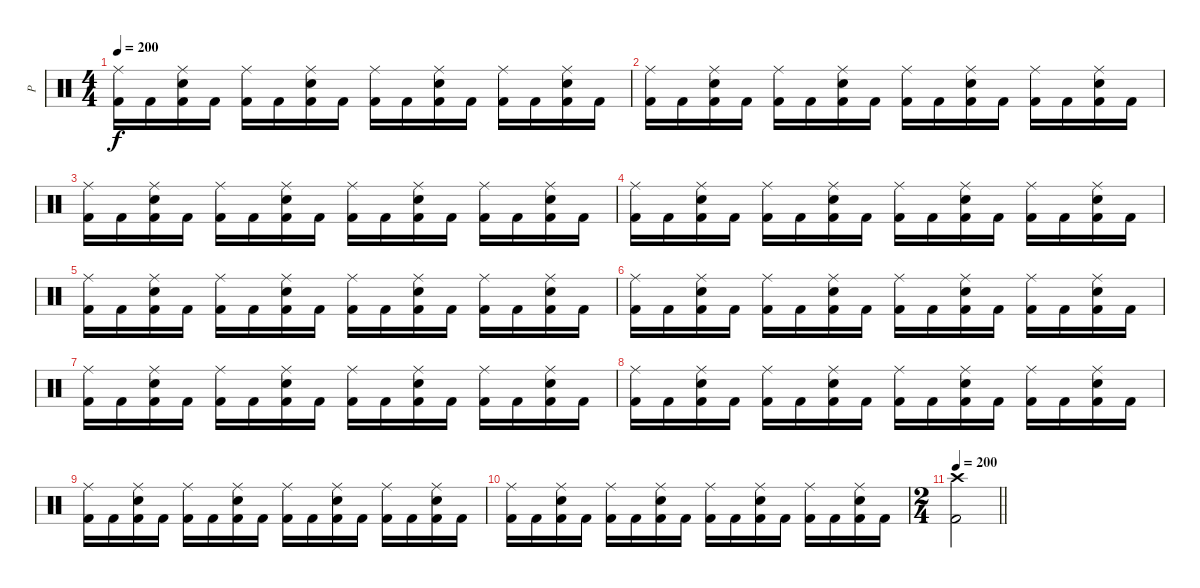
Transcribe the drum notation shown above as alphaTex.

\track ("P" "P") {instrument percussion}
\staff {score}
\articulation defaults
\ts (4 4)
\tempo 200
\clef neutral
\ks c
("Ride (middle)" "Kick (hit) 2").16{dy f} "Kick (hit) 2".16 ("Ride (middle)" "Electric Snare (hit)" "Kick (hit) 2").16 "Kick (hit) 2".16 ("Ride (middle)" "Kick (hit) 2").16 "Kick (hit) 2".16 ("Ride (middle)" "Electric Snare (hit)" "Kick (hit) 2").16 "Kick (hit) 2".16 ("Ride (middle)" "Kick (hit) 2").16 "Kick (hit) 2".16 ("Ride (middle)" "Electric Snare (hit)" "Kick (hit) 2").16 "Kick (hit) 2".16 ("Ride (middle)" "Kick (hit) 2").16 "Kick (hit) 2".16 ("Ride (middle)" "Electric Snare (hit)" "Kick (hit) 2").16 "Kick (hit) 2".16 |
("Ride (middle)" "Kick (hit) 2").16 "Kick (hit) 2".16 ("Ride (middle)" "Electric Snare (hit)" "Kick (hit) 2").16 "Kick (hit) 2".16 ("Ride (middle)" "Kick (hit) 2").16 "Kick (hit) 2".16 ("Ride (middle)" "Electric Snare (hit)" "Kick (hit) 2").16 "Kick (hit) 2".16 ("Ride (middle)" "Kick (hit) 2").16 "Kick (hit) 2".16 ("Ride (middle)" "Electric Snare (hit)" "Kick (hit) 2").16 "Kick (hit) 2".16 ("Ride (middle)" "Kick (hit) 2").16 "Kick (hit) 2".16 ("Ride (middle)" "Electric Snare (hit)" "Kick (hit) 2").16 "Kick (hit) 2".16 |
("Ride (middle)" "Kick (hit) 2").16 "Kick (hit) 2".16 ("Ride (middle)" "Electric Snare (hit)" "Kick (hit) 2").16 "Kick (hit) 2".16 ("Ride (middle)" "Kick (hit) 2").16 "Kick (hit) 2".16 ("Ride (middle)" "Electric Snare (hit)" "Kick (hit) 2").16 "Kick (hit) 2".16 ("Ride (middle)" "Kick (hit) 2").16 "Kick (hit) 2".16 ("Ride (middle)" "Electric Snare (hit)" "Kick (hit) 2").16 "Kick (hit) 2".16 ("Ride (middle)" "Kick (hit) 2").16 "Kick (hit) 2".16 ("Ride (middle)" "Electric Snare (hit)" "Kick (hit) 2").16 "Kick (hit) 2".16 |
("Ride (middle)" "Kick (hit) 2").16 "Kick (hit) 2".16 ("Ride (middle)" "Electric Snare (hit)" "Kick (hit) 2").16 "Kick (hit) 2".16 ("Ride (middle)" "Kick (hit) 2").16 "Kick (hit) 2".16 ("Ride (middle)" "Electric Snare (hit)" "Kick (hit) 2").16 "Kick (hit) 2".16 ("Ride (middle)" "Kick (hit) 2").16 "Kick (hit) 2".16 ("Ride (middle)" "Electric Snare (hit)" "Kick (hit) 2").16 "Kick (hit) 2".16 ("Ride (middle)" "Kick (hit) 2").16 "Kick (hit) 2".16 ("Ride (middle)" "Electric Snare (hit)" "Kick (hit) 2").16 "Kick (hit) 2".16 |
("Ride (middle)" "Kick (hit) 2").16 "Kick (hit) 2".16 ("Ride (middle)" "Electric Snare (hit)" "Kick (hit) 2").16 "Kick (hit) 2".16 ("Ride (middle)" "Kick (hit) 2").16 "Kick (hit) 2".16 ("Ride (middle)" "Electric Snare (hit)" "Kick (hit) 2").16 "Kick (hit) 2".16 ("Ride (middle)" "Kick (hit) 2").16 "Kick (hit) 2".16 ("Ride (middle)" "Electric Snare (hit)" "Kick (hit) 2").16 "Kick (hit) 2".16 ("Ride (middle)" "Kick (hit) 2").16 "Kick (hit) 2".16 ("Ride (middle)" "Electric Snare (hit)" "Kick (hit) 2").16 "Kick (hit) 2".16 |
("Ride (middle)" "Kick (hit) 2").16 "Kick (hit) 2".16 ("Ride (middle)" "Electric Snare (hit)" "Kick (hit) 2").16 "Kick (hit) 2".16 ("Ride (middle)" "Kick (hit) 2").16 "Kick (hit) 2".16 ("Ride (middle)" "Electric Snare (hit)" "Kick (hit) 2").16 "Kick (hit) 2".16 ("Ride (middle)" "Kick (hit) 2").16 "Kick (hit) 2".16 ("Ride (middle)" "Electric Snare (hit)" "Kick (hit) 2").16 "Kick (hit) 2".16 ("Ride (middle)" "Kick (hit) 2").16 "Kick (hit) 2".16 ("Ride (middle)" "Electric Snare (hit)" "Kick (hit) 2").16 "Kick (hit) 2".16 |
("Ride (middle)" "Kick (hit) 2").16 "Kick (hit) 2".16 ("Ride (middle)" "Electric Snare (hit)" "Kick (hit) 2").16 "Kick (hit) 2".16 ("Ride (middle)" "Kick (hit) 2").16 "Kick (hit) 2".16 ("Ride (middle)" "Electric Snare (hit)" "Kick (hit) 2").16 "Kick (hit) 2".16 ("Ride (middle)" "Kick (hit) 2").16 "Kick (hit) 2".16 ("Ride (middle)" "Electric Snare (hit)" "Kick (hit) 2").16 "Kick (hit) 2".16 ("Ride (middle)" "Kick (hit) 2").16 "Kick (hit) 2".16 ("Ride (middle)" "Electric Snare (hit)" "Kick (hit) 2").16 "Kick (hit) 2".16 |
("Ride (middle)" "Kick (hit) 2").16 "Kick (hit) 2".16 ("Ride (middle)" "Electric Snare (hit)" "Kick (hit) 2").16 "Kick (hit) 2".16 ("Ride (middle)" "Kick (hit) 2").16 "Kick (hit) 2".16 ("Ride (middle)" "Electric Snare (hit)" "Kick (hit) 2").16 "Kick (hit) 2".16 ("Ride (middle)" "Kick (hit) 2").16 "Kick (hit) 2".16 ("Ride (middle)" "Electric Snare (hit)" "Kick (hit) 2").16 "Kick (hit) 2".16 ("Ride (middle)" "Kick (hit) 2").16 "Kick (hit) 2".16 ("Ride (middle)" "Electric Snare (hit)" "Kick (hit) 2").16 "Kick (hit) 2".16 |
("Ride (middle)" "Kick (hit) 2").16 "Kick (hit) 2".16 ("Ride (middle)" "Electric Snare (hit)" "Kick (hit) 2").16 "Kick (hit) 2".16 ("Ride (middle)" "Kick (hit) 2").16 "Kick (hit) 2".16 ("Ride (middle)" "Electric Snare (hit)" "Kick (hit) 2").16 "Kick (hit) 2".16 ("Ride (middle)" "Kick (hit) 2").16 "Kick (hit) 2".16 ("Ride (middle)" "Electric Snare (hit)" "Kick (hit) 2").16 "Kick (hit) 2".16 ("Ride (middle)" "Kick (hit) 2").16 "Kick (hit) 2".16 ("Ride (middle)" "Electric Snare (hit)" "Kick (hit) 2").16 "Kick (hit) 2".16 |
("Ride (middle)" "Kick (hit) 2").16 "Kick (hit) 2".16 ("Ride (middle)" "Electric Snare (hit)" "Kick (hit) 2").16 "Kick (hit) 2".16 ("Ride (middle)" "Kick (hit) 2").16 "Kick (hit) 2".16 ("Ride (middle)" "Electric Snare (hit)" "Kick (hit) 2").16 "Kick (hit) 2".16 ("Ride (middle)" "Kick (hit) 2").16 "Kick (hit) 2".16 ("Ride (middle)" "Electric Snare (hit)" "Kick (hit) 2").16 "Kick (hit) 2".16 ("Ride (middle)" "Kick (hit) 2").16 "Kick (hit) 2".16 ("Ride (middle)" "Electric Snare (hit)" "Kick (hit) 2").16 "Kick (hit) 2".16 |
\ts (2 4)
\tempo 200
\barLineRight lightlight
("Crash high (hit)" "Kick (hit) 2").2
